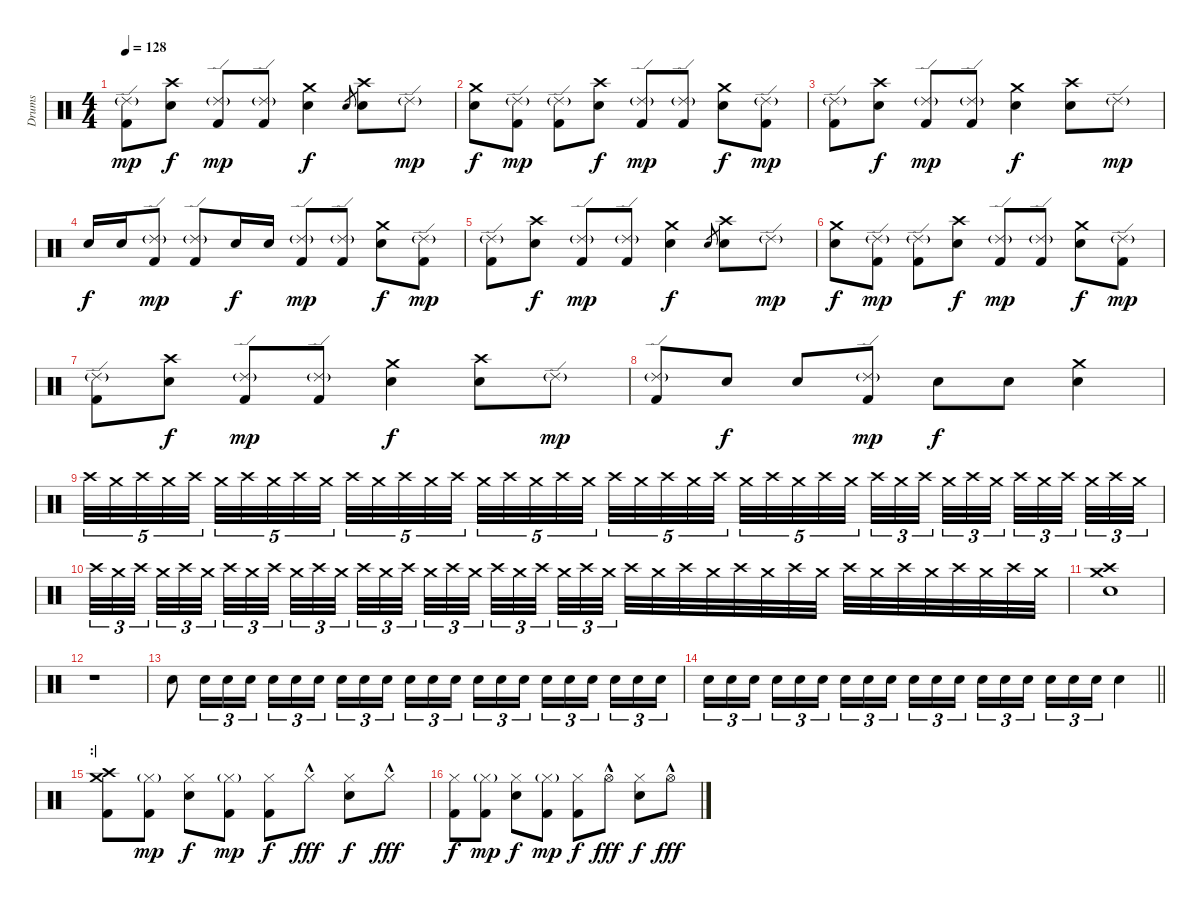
\track ("Drums" "Drums") {instrument percussion}
\staff {score}
\articulation defaults
\ts (4 4)
\tempo 128
\clef neutral
\ks c
("Ride (edge) 2"{g} "Kick (hit) 2").8{dy mp} ("Crash high (hit)" "Snare (hit) 2").8{dy f} ("Ride (edge) 2"{g} "Kick (hit) 2").8{dy mp} ("Ride (edge) 2"{g} "Kick (hit) 2").8 ("Crash medium (hit)" "Snare (hit) 2").4{dy f} "Snare (hit) 2".8{gr} ("Crash high (hit)" "Snare (hit) 2").8 "Ride (edge) 2"{g}.8{dy mp} |
("Crash medium (hit)" "Snare (hit) 2").8{dy f} ("Ride (edge) 2"{g} "Kick (hit) 2").8{dy mp} ("Ride (edge) 2"{g} "Kick (hit) 2").8 ("Crash high (hit)" "Snare (hit) 2").8{dy f} ("Ride (edge) 2"{g} "Kick (hit) 2").8{dy mp} ("Ride (edge) 2"{g} "Kick (hit) 2").8 ("Crash medium (hit)" "Snare (hit) 2").8{dy f} ("Ride (edge) 2"{g} "Kick (hit) 2").8{dy mp} |
("Ride (edge) 2"{g} "Kick (hit) 2").8 ("Crash high (hit)" "Snare (hit) 2").8{dy f} ("Ride (edge) 2"{g} "Kick (hit) 2").8{dy mp} ("Ride (edge) 2"{g} "Kick (hit) 2").8 ("Crash medium (hit)" "Snare (hit) 2").4{dy f} ("Crash high (hit)" "Snare (hit) 2").8 "Ride (edge) 2"{g}.8{dy mp} |
"Snare (hit) 2".16{dy f} "Snare (hit) 2".16 ("Ride (edge) 2"{g} "Kick (hit) 2").8{dy mp} ("Ride (edge) 2"{g} "Kick (hit) 2").8 "Snare (hit) 2".16{dy f} "Snare (hit) 2".16 ("Ride (edge) 2"{g} "Kick (hit) 2").8{dy mp} ("Ride (edge) 2"{g} "Kick (hit) 2").8 ("Crash medium (hit)" "Snare (hit) 2").8{dy f} ("Ride (edge) 2"{g} "Kick (hit) 2").8{dy mp} |
("Ride (edge) 2"{g} "Kick (hit) 2").8 ("Crash high (hit)" "Snare (hit) 2").8{dy f} ("Ride (edge) 2"{g} "Kick (hit) 2").8{dy mp} ("Ride (edge) 2"{g} "Kick (hit) 2").8 ("Crash medium (hit)" "Snare (hit) 2").4{dy f} "Snare (hit) 2".8{gr} ("Crash high (hit)" "Snare (hit) 2").8 "Ride (edge) 2"{g}.8{dy mp} |
("Crash medium (hit)" "Snare (hit) 2").8{dy f} ("Ride (edge) 2"{g} "Kick (hit) 2").8{dy mp} ("Ride (edge) 2"{g} "Kick (hit) 2").8 ("Crash high (hit)" "Snare (hit) 2").8{dy f} ("Ride (edge) 2"{g} "Kick (hit) 2").8{dy mp} ("Ride (edge) 2"{g} "Kick (hit) 2").8 ("Crash medium (hit)" "Snare (hit) 2").8{dy f} ("Ride (edge) 2"{g} "Kick (hit) 2").8{dy mp} |
("Ride (edge) 2"{g} "Kick (hit) 2").8 ("Crash high (hit)" "Snare (hit) 2").8{dy f} ("Ride (edge) 2"{g} "Kick (hit) 2").8{dy mp} ("Ride (edge) 2"{g} "Kick (hit) 2").8 ("Crash medium (hit)" "Snare (hit) 2").4{dy f} ("Crash high (hit)" "Snare (hit) 2").8 "Ride (edge) 2"{g}.8{dy mp} |
("Ride (edge) 2"{g} "Kick (hit) 2").8 "Snare (hit) 2".8{dy f} "Snare (hit) 2".8 ("Ride (edge) 2"{g} "Kick (hit) 2").8{dy mp} "Snare (hit) 2".8{dy f} "Snare (hit) 2".8 ("Crash medium (hit)" "Snare (hit) 2").4 |
"Crash high (hit)".32{tu (5 4)} "Crash medium (hit)".32{tu (5 4)} "Crash high (hit)".32{tu (5 4)} "Crash medium (hit)".32{tu (5 4)} "Crash high (hit)".32{tu (5 4) beam splitsecondary} "Crash medium (hit)".32{tu (5 4)} "Crash high (hit)".32{tu (5 4)} "Crash medium (hit)".32{tu (5 4)} "Crash high (hit)".32{tu (5 4)} "Crash medium (hit)".32{tu (5 4)} "Crash high (hit)".32{tu (5 4)} "Crash medium (hit)".32{tu (5 4)} "Crash high (hit)".32{tu (5 4)} "Crash medium (hit)".32{tu (5 4)} "Crash high (hit)".32{tu (5 4) beam splitsecondary} "Crash medium (hit)".32{tu (5 4)} "Crash high (hit)".32{tu (5 4)} "Crash medium (hit)".32{tu (5 4)} "Crash high (hit)".32{tu (5 4)} "Crash medium (hit)".32{tu (5 4)} "Crash high (hit)".32{tu (5 4)} "Crash medium (hit)".32{tu (5 4)} "Crash high (hit)".32{tu (5 4)} "Crash medium (hit)".32{tu (5 4)} "Crash high (hit)".32{tu (5 4) beam splitsecondary} "Crash medium (hit)".32{tu (5 4)} "Crash high (hit)".32{tu (5 4)} "Crash medium (hit)".32{tu (5 4)} "Crash high (hit)".32{tu (5 4)} "Crash medium (hit)".32{tu (5 4)} "Crash high (hit)".32{tu (3 2)} "Crash medium (hit)".32{tu (3 2)} "Crash high (hit)".32{tu (3 2) beam splitsecondary} "Crash medium (hit)".32{tu (3 2)} "Crash high (hit)".32{tu (3 2)} "Crash medium (hit)".32{tu (3 2) beam splitsecondary} "Crash high (hit)".32{tu (3 2)} "Crash medium (hit)".32{tu (3 2)} "Crash high (hit)".32{tu (3 2) beam splitsecondary} "Crash medium (hit)".32{tu (3 2)} "Crash high (hit)".32{tu (3 2)} "Crash medium (hit)".32{tu (3 2)} |
"Crash high (hit)".32{tu (3 2)} "Crash medium (hit)".32{tu (3 2)} "Crash high (hit)".32{tu (3 2) beam splitsecondary} "Crash medium (hit)".32{tu (3 2)} "Crash high (hit)".32{tu (3 2)} "Crash medium (hit)".32{tu (3 2) beam splitsecondary} "Crash high (hit)".32{tu (3 2)} "Crash medium (hit)".32{tu (3 2)} "Crash high (hit)".32{tu (3 2) beam splitsecondary} "Crash medium (hit)".32{tu (3 2)} "Crash high (hit)".32{tu (3 2)} "Crash medium (hit)".32{tu (3 2)} "Crash high (hit)".32{tu (3 2)} "Crash medium (hit)".32{tu (3 2)} "Crash high (hit)".32{tu (3 2) beam splitsecondary} "Crash medium (hit)".32{tu (3 2)} "Crash high (hit)".32{tu (3 2)} "Crash medium (hit)".32{tu (3 2) beam splitsecondary} "Crash high (hit)".32{tu (3 2)} "Crash medium (hit)".32{tu (3 2)} "Crash high (hit)".32{tu (3 2) beam splitsecondary} "Crash medium (hit)".32{tu (3 2)} "Crash high (hit)".32{tu (3 2)} "Crash medium (hit)".32{tu (3 2)} "Crash high (hit)".32 "Crash medium (hit)".32 "Crash high (hit)".32 "Crash medium (hit)".32 "Crash high (hit)".32 "Crash medium (hit)".32 "Crash high (hit)".32 "Crash medium (hit)".32 "Crash high (hit)".32 "Crash medium (hit)".32 "Crash high (hit)".32 "Crash medium (hit)".32 "Crash high (hit)".32 "Crash medium (hit)".32 "Crash high (hit)".32 "Crash medium (hit)".32 |
("Crash medium (hit)" "Crash high (hit)" "Snare (hit)").1 |
r.1 |
"Snare (hit) 2".8 "Snare (hit) 2".16{tu (3 2) volume 3} "Snare (hit) 2".16{tu (3 2)} "Snare (hit) 2".16{tu (3 2)} "Snare (hit) 2".16{tu (3 2)} "Snare (hit) 2".16{tu (3 2)} "Snare (hit) 2".16{tu (3 2) beam splitsecondary} "Snare (hit) 2".16{tu (3 2)} "Snare (hit) 2".16{tu (3 2)} "Snare (hit) 2".16{tu (3 2)} "Snare (hit) 2".16{tu (3 2) volume 9} "Snare (hit) 2".16{tu (3 2)} "Snare (hit) 2".16{tu (3 2) beam splitsecondary} "Snare (hit) 2".16{tu (3 2)} "Snare (hit) 2".16{tu (3 2)} "Snare (hit) 2".16{tu (3 2)} "Snare (hit) 2".16{tu (3 2)} "Snare (hit) 2".16{tu (3 2)} "Snare (hit) 2".16{tu (3 2) beam splitsecondary} "Snare (hit) 2".16{tu (3 2)} "Snare (hit) 2".16{tu (3 2)} "Snare (hit) 2".16{tu (3 2)} |
\barLineRight lightlight "Snare (hit) 2".16{tu (3 2)} "Snare (hit) 2".16{tu (3 2)} "Snare (hit) 2".16{tu (3 2) beam splitsecondary} "Snare (hit) 2".16{tu (3 2)} "Snare (hit) 2".16{tu (3 2)} "Snare (hit) 2".16{tu (3 2)} "Snare (hit) 2".16{tu (3 2)} "Snare (hit) 2".16{tu (3 2)} "Snare (hit) 2".16{tu (3 2) beam splitsecondary} "Snare (hit) 2".16{tu (3 2)} "Snare (hit) 2".16{tu (3 2)} "Snare (hit) 2".16{tu (3 2)} "Snare (hit) 2".16{tu (3 2)} "Snare (hit) 2".16{tu (3 2)} "Snare (hit) 2".16{tu (3 2) beam splitsecondary} "Snare (hit) 2".16{tu (3 2)} "Snare (hit) 2".16{tu (3 2)} "Snare (hit) 2".16{tu (3 2)} "Snare (hit) 2".4
|
\section ("" ":|")
("Crash medium (hit)" "Crash high (hit)" "Kick (hit) 2").8 ("Hi-Hat (closed)"{g} "Kick (hit) 2").8{dy mp} ("Hi-Hat (closed)" "Snare (hit) 2").8{dy f} ("Hi-Hat (closed)"{g} "Kick (hit) 2").8{dy mp} ("Hi-Hat (closed)" "Kick (hit) 2").8{dy f} "Hi-Hat (closed)"{hac}.8{dy fff} ("Hi-Hat (closed)" "Snare (hit) 2").8{dy f} "Hi-Hat (closed)"{hac}.8{dy fff} |
("Hi-Hat (closed)" "Kick (hit) 2").8{dy f} ("Hi-Hat (closed)"{g} "Kick (hit) 2").8{dy mp} ("Hi-Hat (closed)" "Snare (hit) 2").8{dy f} ("Hi-Hat (closed)"{g} "Kick (hit) 2").8{dy mp} ("Hi-Hat (closed)" "Kick (hit) 2").8{dy f} "Hi-Hat (open)"{hac}.8{dy fff} ("Hi-Hat (closed)" "Snare (hit) 2").8{dy f} "Hi-Hat (open)"{hac}.8{dy fff}
